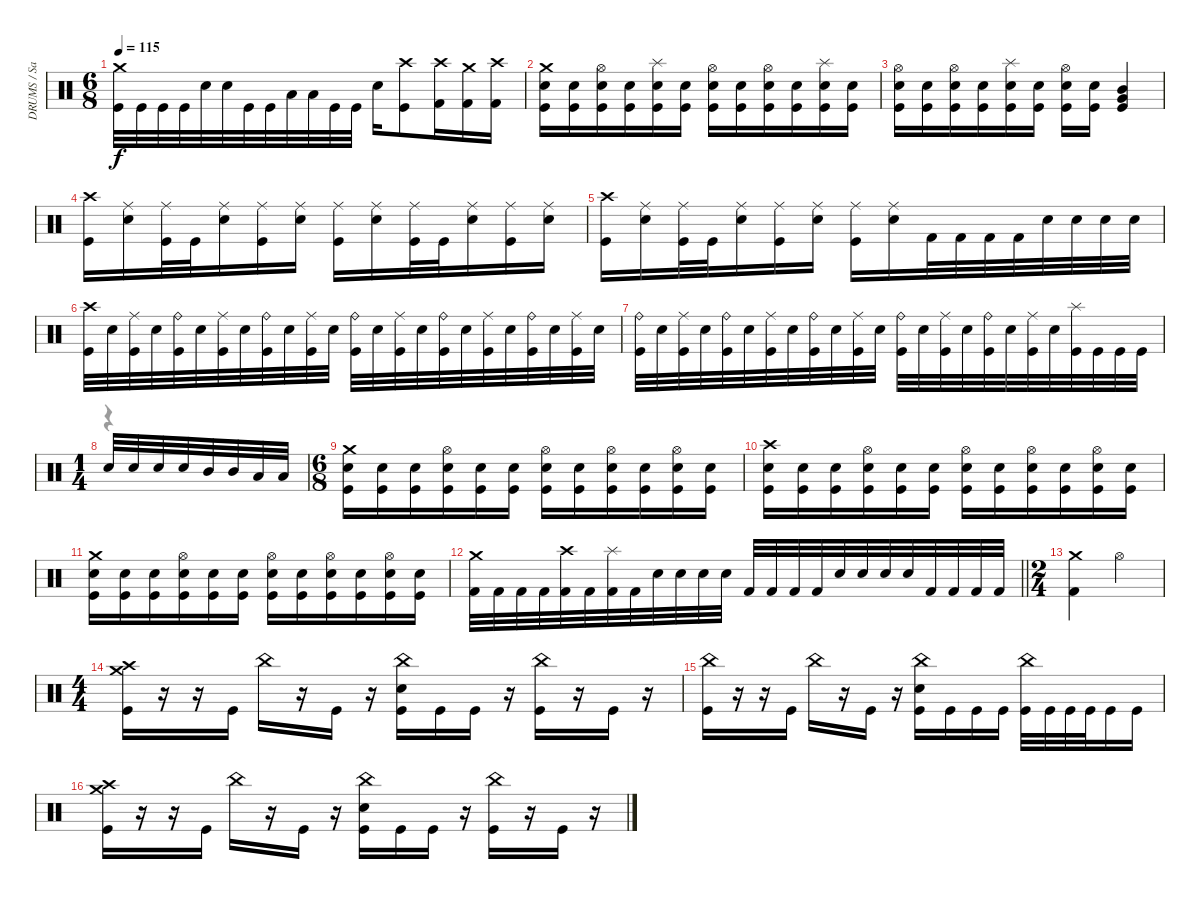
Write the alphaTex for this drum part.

\track ("DRUMS / Sasha" "DRUMS / Sa") {instrument percussion}
\staff {score}
\articulation defaults
\voice
\ts (6 8)
\tempo 115
\clef neutral
\ks c
("Crash medium (hit)" "Kick (hit)").32{dy f} "Kick (hit)".32 "Kick (hit)".32 "Kick (hit)".32 "Snare (hit) 2".32 "Snare (hit) 2".32 "Kick (hit)".32 "Kick (hit)".32 "Low Tom (hit)".32 "Low Tom (hit)".32 "Kick (hit)".32 "Kick (hit)".32 "Snare (hit) 2".16 ("Crash high (hit)" "Kick (hit)").8 ("Crash high (hit)" "Kick (hit) 2").16 ("Crash medium (hit)" "Kick (hit) 2").16 ("Crash high (hit)" "Kick (hit) 2").16 |
("Crash medium (hit)" "Snare (hit) 2" "Kick (hit)").16 ("Snare (hit) 2" "Kick (hit)").16 ("Hi-Hat (open)" "Snare (hit) 2" "Kick (hit)").16 ("Snare (hit) 2" "Kick (hit)").16 ("Splash (hit)" "Snare (hit) 2" "Kick (hit)").16 ("Snare (hit) 2" "Kick (hit)").16 ("Hi-Hat (open)" "Snare (hit) 2" "Kick (hit)").16 ("Snare (hit) 2" "Kick (hit)").16 ("Hi-Hat (open)" "Snare (hit) 2" "Kick (hit)").16 ("Snare (hit) 2" "Kick (hit)").16 ("Splash (hit)" "Snare (hit) 2" "Kick (hit)").16 ("Snare (hit) 2" "Kick (hit)").16 |
("Hi-Hat (open)" "Snare (hit) 2" "Kick (hit)").16 ("Snare (hit) 2" "Kick (hit)").16 ("Hi-Hat (open)" "Snare (hit) 2" "Kick (hit)").16 ("Snare (hit) 2" "Kick (hit)").16 ("Splash (hit)" "Snare (hit) 2" "Kick (hit)").16 ("Snare (hit) 2" "Kick (hit)").16 ("Hi-Hat (open)" "Snare (hit) 2" "Kick (hit)").16 ("Snare (hit) 2" "Kick (hit)").16 ("Very Low Tom (hit)" "Mid Tom (hit)" "Kick (hit)").4 |
("Crash high (hit)" "Kick (hit)").16 ("Ride (middle)" "Snare (hit) 2").16 ("Ride (middle)" "Kick (hit)").32 "Kick (hit)".32 ("Ride (middle)" "Snare (hit) 2").16 ("Ride (middle)" "Kick (hit)").16 ("Ride (middle)" "Snare (hit) 2").16 ("Ride (middle)" "Kick (hit)").16 ("Ride (middle)" "Snare (hit) 2").16 ("Ride (middle)" "Kick (hit)").32 "Kick (hit)".32 ("Ride (middle)" "Snare (hit) 2").16 ("Ride (middle)" "Kick (hit)").16 ("Ride (middle)" "Snare (hit) 2").16 |
("Crash high (hit)" "Kick (hit)").16 ("Ride (middle)" "Snare (hit) 2").16 ("Ride (middle)" "Kick (hit)").32 "Kick (hit)".32 ("Ride (middle)" "Snare (hit) 2").16 ("Ride (middle)" "Kick (hit)").16 ("Ride (middle)" "Snare (hit) 2").16 ("Ride (middle)" "Kick (hit)").16 ("Ride (middle)" "Snare (hit) 2").16 "Kick (hit) 2".32 "Kick (hit) 2".32 "Kick (hit) 2".32 "Kick (hit) 2".32 "Electric Snare (hit)".32 "Electric Snare (hit)".32 "Electric Snare (hit)".32 "Electric Snare (hit)".32 |
("Crash high (hit)" "Kick (hit)").32 "Snare (hit) 2".32 ("Kick (hit)" "Ride (middle)").32 "Snare (hit) 2".32 ("Kick (hit)" "Ride (bell)").32 "Snare (hit) 2".32 ("Kick (hit)" "Ride (middle)").32 "Snare (hit) 2".32 ("Kick (hit)" "Ride (bell)").32 "Snare (hit) 2".32 ("Kick (hit)" "Ride (middle)").32 "Snare (hit) 2".32 ("Kick (hit)" "Ride (bell)").32 "Snare (hit) 2".32 ("Kick (hit)" "Ride (middle)").32 "Snare (hit) 2".32 ("Kick (hit)" "Ride (bell)").32 "Snare (hit) 2".32 ("Kick (hit)" "Ride (middle)").32 "Snare (hit) 2".32 ("Kick (hit)" "Ride (bell)").32 "Snare (hit) 2".32 ("Kick (hit)" "Ride (middle)").32 "Snare (hit) 2".32 |
("Kick (hit)" "Ride (bell)").32 "Snare (hit) 2".32 ("Kick (hit)" "Ride (middle)").32 "Snare (hit) 2".32 ("Kick (hit)" "Ride (bell)").32 "Snare (hit) 2".32 ("Kick (hit)" "Ride (middle)").32 "Snare (hit) 2".32 ("Kick (hit)" "Ride (bell)").32 "Snare (hit) 2".32 ("Kick (hit)" "Ride (middle)").32 "Snare (hit) 2".32 ("Kick (hit)" "Ride (bell)").32 "Snare (hit) 2".32 ("Kick (hit)" "Ride (middle)").32 "Snare (hit) 2".32 ("Kick (hit)" "Ride (bell)").32 "Snare (hit) 2".32 ("Kick (hit)" "Ride (middle)").32 "Snare (hit) 2".32 ("Splash (hit)" "Kick (hit)").32 "Kick (hit)".32 "Kick (hit)".32 "Kick (hit)".32 |
\ts (1 4)
"Snare (hit) 2".32 "Snare (hit) 2".32 "Snare (hit) 2".32 "Snare (hit) 2".32 "Mid Tom (hit)".32 "Mid Tom (hit)".32 "Low Tom (hit)".32 "Low Tom (hit)".32 |
\ts (6 8)
("Crash medium (hit)" "Snare (hit) 2" "Kick (hit)").16 ("Snare (hit) 2" "Kick (hit)").16 ("Snare (hit) 2" "Kick (hit)").16 ("Hi-Hat (open)" "Snare (hit) 2" "Kick (hit)").16 ("Snare (hit) 2" "Kick (hit)").16 ("Snare (hit) 2" "Kick (hit)").16 ("Hi-Hat (open)" "Snare (hit) 2" "Kick (hit)").16 ("Snare (hit) 2" "Kick (hit)").16 ("Hi-Hat (open)" "Snare (hit) 2" "Kick (hit)").16 ("Snare (hit) 2" "Kick (hit)").16 ("Hi-Hat (open)" "Snare (hit) 2" "Kick (hit)").16 ("Snare (hit) 2" "Kick (hit)").16 |
("Crash high (hit)" "Snare (hit) 2" "Kick (hit)").16 ("Snare (hit) 2" "Kick (hit)").16 ("Snare (hit) 2" "Kick (hit)").16 ("Hi-Hat (open)" "Snare (hit) 2" "Kick (hit)").16 ("Snare (hit) 2" "Kick (hit)").16 ("Snare (hit) 2" "Kick (hit)").16 ("Hi-Hat (open)" "Snare (hit) 2" "Kick (hit)").16 ("Snare (hit) 2" "Kick (hit)").16 ("Hi-Hat (open)" "Snare (hit) 2" "Kick (hit)").16 ("Snare (hit) 2" "Kick (hit)").16 ("Hi-Hat (open)" "Snare (hit) 2" "Kick (hit)").16 ("Snare (hit) 2" "Kick (hit)").16 |
("Crash medium (hit)" "Snare (hit) 2" "Kick (hit)").16 ("Snare (hit) 2" "Kick (hit)").16 ("Snare (hit) 2" "Kick (hit)").16 ("Hi-Hat (open)" "Snare (hit) 2" "Kick (hit)").16 ("Snare (hit) 2" "Kick (hit)").16 ("Snare (hit) 2" "Kick (hit)").16 ("Hi-Hat (open)" "Snare (hit) 2" "Kick (hit)").16 ("Snare (hit) 2" "Kick (hit)").16 ("Hi-Hat (open)" "Snare (hit) 2" "Kick (hit)").16 ("Snare (hit) 2" "Kick (hit)").16 ("Hi-Hat (open)" "Snare (hit) 2" "Kick (hit)").16 ("Snare (hit) 2" "Kick (hit)").16 |
\barLineRight lightlight
("Crash medium (hit)" "Kick (hit) 2").32 "Kick (hit) 2".32 "Kick (hit) 2".32 "Kick (hit) 2".32 ("Crash high (hit)" "Kick (hit) 2").32 "Kick (hit) 2".32 ("Splash (hit)" "Kick (hit) 2").32 "Kick (hit) 2".32 "Electric Snare (hit)".32 "Electric Snare (hit)".32 "Electric Snare (hit)".32 "Electric Snare (hit)".32 "Kick (hit) 2".32 "Kick (hit) 2".32 "Kick (hit) 2".32 "Kick (hit) 2".32 "Electric Snare (hit)".32 "Electric Snare (hit)".32 "Electric Snare (hit)".32 "Electric Snare (hit)".32 "Kick (hit) 2".32 "Kick (hit) 2".32 "Kick (hit) 2".32 "Kick (hit) 2".32 |
\ts (2 4)
("Crash medium (hit)" "Kick (hit) 2").4 "Hi-Hat (open)".4 |
\ts (4 4)
("Crash high (hit)" "Crash medium (hit)" "Kick (hit)").16 r.16 r.16 "Kick (hit)".16 "China (hit)".16 r.16 "Kick (hit)".16 r.16 ("China (hit)" "Kick (hit)" "Snare (hit) 2").16 "Kick (hit)".16 "Kick (hit)".16 r.16 ("China (hit)" "Kick (hit)").16 r.16 "Kick (hit)".16 r.16 |
("China (hit)" "Kick (hit)").16 r.16 r.16 "Kick (hit)".16 "China (hit)".16 r.16 "Kick (hit)".16 r.16 ("China (hit)" "Kick (hit)" "Snare (hit) 2").16 "Kick (hit)".16 "Kick (hit)".16 "Kick (hit)".16 ("China (hit)" "Kick (hit)").32 "Kick (hit)".32 "Kick (hit)".32 "Kick (hit)".32 "Kick (hit)".16 "Kick (hit)".16 |
("Crash high (hit)" "Crash medium (hit)" "Kick (hit)").16 r.16 r.16 "Kick (hit)".16 "China (hit)".16 r.16 "Kick (hit)".16 r.16 ("China (hit)" "Kick (hit)" "Snare (hit) 2").16 "Kick (hit)".16 "Kick (hit)".16 r.16 ("China (hit)" "Kick (hit)").16 r.16 "Kick (hit)".16 r.16
\voice
\clef neutral
\ottava regular
\simile none
\ks c
|
|
|
|
|
|
|
r.4 |
|
|
|
\barLineRight lightlight
|
|
|
|
